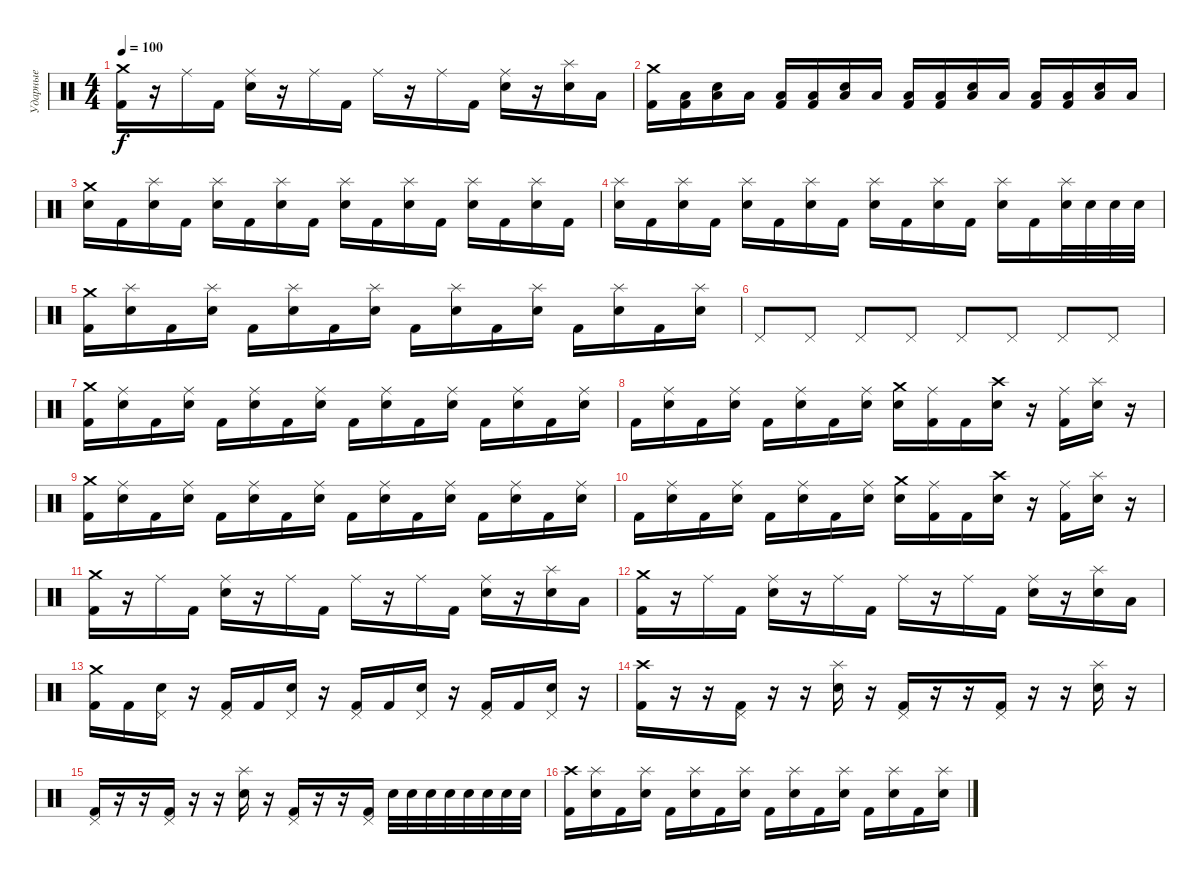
\track ("Ударные" "Ударные") {instrument percussion}
\staff {score}
\articulation defaults
\ts (4 4)
\tempo 100
\clef neutral
\ks c
("Crash medium (hit)" "Kick (hit) 2").16{dy f} r.16 "Ride (middle)".16 "Kick (hit) 2".16 ("Ride (middle)" "Electric Snare (hit)").16 r.16 "Ride (middle)".16 "Kick (hit) 2".16 "Ride (middle)".16 r.16 "Ride (middle)".16 "Kick (hit) 2".16 ("Ride (middle)" "Electric Snare (hit)").16 r.16 ("Splash (hit)" "Electric Snare (hit)").16 "Low Tom (hit)".16 |
("Crash medium (hit)" "Kick (hit) 2").16 ("Low Floor Tom (hit)" "Kick (hit) 2").16 ("Low Floor Tom (hit)" "Electric Snare (hit)").16 "Low Floor Tom (hit)".16 ("Low Floor Tom (hit)" "Kick (hit) 2").16 ("Low Floor Tom (hit)" "Kick (hit) 2").16 ("Low Floor Tom (hit)" "Electric Snare (hit)").16 "Low Floor Tom (hit)".16 ("Low Floor Tom (hit)" "Kick (hit) 2").16 ("Low Floor Tom (hit)" "Kick (hit) 2").16 ("Low Floor Tom (hit)" "Electric Snare (hit)").16 "Low Floor Tom (hit)".16 ("Low Floor Tom (hit)" "Kick (hit) 2").16 ("Low Floor Tom (hit)" "Kick (hit) 2").16 ("Low Floor Tom (hit)" "Electric Snare (hit)").16 "Low Floor Tom (hit)".16 |
("Crash medium (hit)" "Electric Snare (hit)").16 "Kick (hit) 2".16 ("Splash (hit)" "Electric Snare (hit)").16 "Kick (hit) 2".16 ("Splash (hit)" "Electric Snare (hit)").16 "Kick (hit) 2".16 ("Splash (hit)" "Electric Snare (hit)").16 "Kick (hit) 2".16 ("Splash (hit)" "Electric Snare (hit)").16 "Kick (hit) 2".16 ("Splash (hit)" "Electric Snare (hit)").16 "Kick (hit) 2".16 ("Splash (hit)" "Electric Snare (hit)").16 "Kick (hit) 2".16 ("Splash (hit)" "Electric Snare (hit)").16 "Kick (hit) 2".16 |
("Splash (hit)" "Electric Snare (hit)").16 "Kick (hit) 2".16 ("Splash (hit)" "Electric Snare (hit)").16 "Kick (hit) 2".16 ("Splash (hit)" "Electric Snare (hit)").16 "Kick (hit) 2".16 ("Splash (hit)" "Electric Snare (hit)").16 "Kick (hit) 2".16 ("Splash (hit)" "Electric Snare (hit)").16 "Kick (hit) 2".16 ("Splash (hit)" "Electric Snare (hit)").16 "Kick (hit) 2".16 ("Splash (hit)" "Electric Snare (hit)").16 "Kick (hit) 2".16 ("Splash (hit)" "Electric Snare (hit)").32 "Electric Snare (hit)".32 "Electric Snare (hit)".32 "Electric Snare (hit)".32 |
("Crash medium (hit)" "Kick (hit) 2").16 ("Splash (hit)" "Electric Snare (hit)").16 "Kick (hit) 2".16 ("Splash (hit)" "Electric Snare (hit)").16 "Kick (hit) 2".16 ("Splash (hit)" "Electric Snare (hit)").16 "Kick (hit) 2".16 ("Splash (hit)" "Electric Snare (hit)").16 "Kick (hit) 2".16 ("Splash (hit)" "Electric Snare (hit)").16 "Kick (hit) 2".16 ("Splash (hit)" "Electric Snare (hit)").16 "Kick (hit) 2".16 ("Splash (hit)" "Electric Snare (hit)").16 "Kick (hit) 2".16 ("Splash (hit)" "Electric Snare (hit)").16 |
"Pedal Hi-Hat (hit)".8 "Pedal Hi-Hat (hit)".8 "Pedal Hi-Hat (hit)".8 "Pedal Hi-Hat (hit)".8 "Pedal Hi-Hat (hit)".8 "Pedal Hi-Hat (hit)".8 "Pedal Hi-Hat (hit)".8 "Pedal Hi-Hat (hit)".8 |
("Crash medium (hit)" "Kick (hit) 2").16 ("Ride (middle)" "Electric Snare (hit)").16 "Kick (hit) 2".16 ("Ride (middle)" "Electric Snare (hit)").16 "Kick (hit) 2".16 ("Ride (middle)" "Electric Snare (hit)").16 "Kick (hit) 2".16 ("Ride (middle)" "Electric Snare (hit)").16 "Kick (hit) 2".16 ("Ride (middle)" "Electric Snare (hit)").16 "Kick (hit) 2".16 ("Ride (middle)" "Electric Snare (hit)").16 "Kick (hit) 2".16 ("Ride (middle)" "Electric Snare (hit)").16 "Kick (hit) 2".16 ("Ride (middle)" "Electric Snare (hit)").16 |
"Kick (hit) 2".16 ("Ride (middle)" "Electric Snare (hit)").16 "Kick (hit) 2".16 ("Ride (middle)" "Electric Snare (hit)").16 "Kick (hit) 2".16 ("Ride (middle)" "Electric Snare (hit)").16 "Kick (hit) 2".16 ("Ride (middle)" "Electric Snare (hit)").16 ("Crash medium (hit)" "Electric Snare (hit)").16 ("Ride (middle)" "Kick (hit) 2").16 "Kick (hit) 2".16 ("Crash high (hit)" "Electric Snare (hit)").16 r.16 ("Ride (middle)" "Kick (hit) 2").16 ("Splash (hit)" "Electric Snare (hit)").16 r.16 |
("Crash medium (hit)" "Kick (hit) 2").16 ("Ride (middle)" "Electric Snare (hit)").16 "Kick (hit) 2".16 ("Ride (middle)" "Electric Snare (hit)").16 "Kick (hit) 2".16 ("Ride (middle)" "Electric Snare (hit)").16 "Kick (hit) 2".16 ("Ride (middle)" "Electric Snare (hit)").16 "Kick (hit) 2".16 ("Ride (middle)" "Electric Snare (hit)").16 "Kick (hit) 2".16 ("Ride (middle)" "Electric Snare (hit)").16 "Kick (hit) 2".16 ("Ride (middle)" "Electric Snare (hit)").16 "Kick (hit) 2".16 ("Ride (middle)" "Electric Snare (hit)").16 |
"Kick (hit) 2".16 ("Ride (middle)" "Electric Snare (hit)").16 "Kick (hit) 2".16 ("Ride (middle)" "Electric Snare (hit)").16 "Kick (hit) 2".16 ("Ride (middle)" "Electric Snare (hit)").16 "Kick (hit) 2".16 ("Ride (middle)" "Electric Snare (hit)").16 ("Crash medium (hit)" "Electric Snare (hit)").16 ("Ride (middle)" "Kick (hit) 2").16 "Kick (hit) 2".16 ("Crash high (hit)" "Electric Snare (hit)").16 r.16 ("Ride (middle)" "Kick (hit) 2").16 ("Splash (hit)" "Electric Snare (hit)").16 r.16 |
("Crash medium (hit)" "Kick (hit) 2").16 r.16 "Ride (middle)".16 "Kick (hit) 2".16 ("Ride (middle)" "Electric Snare (hit)").16 r.16 "Ride (middle)".16 "Kick (hit) 2".16 "Ride (middle)".16 r.16 "Ride (middle)".16 "Kick (hit) 2".16 ("Ride (middle)" "Electric Snare (hit)").16 r.16 ("Splash (hit)" "Electric Snare (hit)").16 "Low Tom (hit)".16 |
("Crash medium (hit)" "Kick (hit) 2").16 r.16 "Ride (middle)".16 "Kick (hit) 2".16 ("Ride (middle)" "Electric Snare (hit)").16 r.16 "Ride (middle)".16 "Kick (hit) 2".16 "Ride (middle)".16 r.16 "Ride (middle)".16 "Kick (hit) 2".16 ("Ride (middle)" "Electric Snare (hit)").16 r.16 ("Splash (hit)" "Electric Snare (hit)").16 "Low Tom (hit)".16 |
("Crash medium (hit)" "Kick (hit) 2").16 "Kick (hit) 2".16 ("Pedal Hi-Hat (hit)" "Electric Snare (hit)").16 r.16 ("Pedal Hi-Hat (hit)" "Kick (hit) 2").16 "Kick (hit) 2".16 ("Pedal Hi-Hat (hit)" "Electric Snare (hit)").16 r.16 ("Pedal Hi-Hat (hit)" "Kick (hit) 2").16 "Kick (hit) 2".16 ("Pedal Hi-Hat (hit)" "Electric Snare (hit)").16 r.16 ("Pedal Hi-Hat (hit)" "Kick (hit) 2").16 "Kick (hit) 2".16 ("Pedal Hi-Hat (hit)" "Electric Snare (hit)").16 r.16 |
("Crash high (hit)" "Kick (hit) 2").16 r.16 r.16 ("Pedal Hi-Hat (hit)" "Kick (hit) 2").16 r.16 r.16 ("Splash (hit)" "Electric Snare (hit)").16 r.16 ("Pedal Hi-Hat (hit)" "Kick (hit) 2").16 r.16 r.16 ("Pedal Hi-Hat (hit)" "Kick (hit) 2").16 r.16 r.16 ("Splash (hit)" "Electric Snare (hit)").16 r.16 |
("Pedal Hi-Hat (hit)" "Kick (hit) 2").16 r.16 r.16 ("Pedal Hi-Hat (hit)" "Kick (hit) 2").16 r.16 r.16 ("Splash (hit)" "Electric Snare (hit)").16 r.16 ("Pedal Hi-Hat (hit)" "Kick (hit) 2").16 r.16 r.16 ("Pedal Hi-Hat (hit)" "Kick (hit) 2").16 "Electric Snare (hit)".32 "Electric Snare (hit)".32 "Electric Snare (hit)".32 "Electric Snare (hit)".32 "Electric Snare (hit)".32 "Electric Snare (hit)".32 "Electric Snare (hit)".32 "Electric Snare (hit)".32 |
("Crash high (hit)" "Kick (hit) 2").16 ("Splash (hit)" "Electric Snare (hit)").16 "Kick (hit) 2".16 ("Splash (hit)" "Electric Snare (hit)").16 "Kick (hit) 2".16 ("Splash (hit)" "Electric Snare (hit)").16 "Kick (hit) 2".16 ("Splash (hit)" "Electric Snare (hit)").16 "Kick (hit) 2".16 ("Splash (hit)" "Electric Snare (hit)").16 "Kick (hit) 2".16 ("Splash (hit)" "Electric Snare (hit)").16 "Kick (hit) 2".16 ("Splash (hit)" "Electric Snare (hit)").16 "Kick (hit) 2".16 ("Splash (hit)" "Electric Snare (hit)").16
